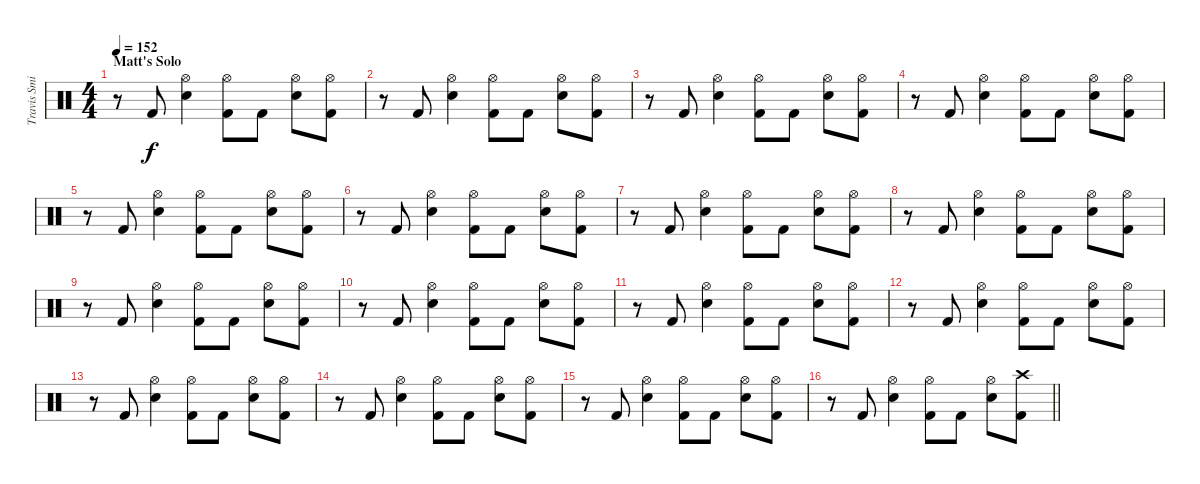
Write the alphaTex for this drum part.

\track ("Travis Smith" "Travis Smi") {instrument percussion}
\staff {score}
\articulation defaults
\ts (4 4)
\section ("" "Matt's Solo")
\tempo 152
\clef neutral
\ks c
r.8{dy f} "Kick (hit) 2".8 ("Snare (hit) 2" "Hi-Hat (open)").4 ("Kick (hit) 2" "Hi-Hat (open)").8 "Kick (hit) 2".8 ("Snare (hit) 2" "Hi-Hat (open)").8 ("Kick (hit) 2" "Hi-Hat (open)").8 |
r.8 "Kick (hit) 2".8 ("Snare (hit) 2" "Hi-Hat (open)").4 ("Kick (hit) 2" "Hi-Hat (open)").8 "Kick (hit) 2".8 ("Snare (hit) 2" "Hi-Hat (open)").8 ("Kick (hit) 2" "Hi-Hat (open)").8 |
r.8 "Kick (hit) 2".8 ("Snare (hit) 2" "Hi-Hat (open)").4 ("Kick (hit) 2" "Hi-Hat (open)").8 "Kick (hit) 2".8 ("Snare (hit) 2" "Hi-Hat (open)").8 ("Kick (hit) 2" "Hi-Hat (open)").8 |
r.8 "Kick (hit) 2".8 ("Snare (hit) 2" "Hi-Hat (open)").4 ("Kick (hit) 2" "Hi-Hat (open)").8 "Kick (hit) 2".8 ("Snare (hit) 2" "Hi-Hat (open)").8 ("Kick (hit) 2" "Hi-Hat (open)").8 |
r.8 "Kick (hit) 2".8 ("Snare (hit) 2" "Hi-Hat (open)").4 ("Kick (hit) 2" "Hi-Hat (open)").8 "Kick (hit) 2".8 ("Snare (hit) 2" "Hi-Hat (open)").8 ("Kick (hit) 2" "Hi-Hat (open)").8 |
r.8 "Kick (hit) 2".8 ("Snare (hit) 2" "Hi-Hat (open)").4 ("Kick (hit) 2" "Hi-Hat (open)").8 "Kick (hit) 2".8 ("Snare (hit) 2" "Hi-Hat (open)").8 ("Kick (hit) 2" "Hi-Hat (open)").8 |
r.8 "Kick (hit) 2".8 ("Snare (hit) 2" "Hi-Hat (open)").4 ("Kick (hit) 2" "Hi-Hat (open)").8 "Kick (hit) 2".8 ("Snare (hit) 2" "Hi-Hat (open)").8 ("Kick (hit) 2" "Hi-Hat (open)").8 |
r.8 "Kick (hit) 2".8 ("Snare (hit) 2" "Hi-Hat (open)").4 ("Kick (hit) 2" "Hi-Hat (open)").8 "Kick (hit) 2".8 ("Snare (hit) 2" "Hi-Hat (open)").8 ("Kick (hit) 2" "Hi-Hat (open)").8 |
r.8 "Kick (hit) 2".8 ("Snare (hit) 2" "Hi-Hat (open)").4 ("Kick (hit) 2" "Hi-Hat (open)").8 "Kick (hit) 2".8 ("Snare (hit) 2" "Hi-Hat (open)").8 ("Kick (hit) 2" "Hi-Hat (open)").8 |
r.8 "Kick (hit) 2".8 ("Snare (hit) 2" "Hi-Hat (open)").4 ("Kick (hit) 2" "Hi-Hat (open)").8 "Kick (hit) 2".8 ("Snare (hit) 2" "Hi-Hat (open)").8 ("Kick (hit) 2" "Hi-Hat (open)").8 |
r.8 "Kick (hit) 2".8 ("Snare (hit) 2" "Hi-Hat (open)").4 ("Kick (hit) 2" "Hi-Hat (open)").8 "Kick (hit) 2".8 ("Snare (hit) 2" "Hi-Hat (open)").8 ("Kick (hit) 2" "Hi-Hat (open)").8 |
r.8 "Kick (hit) 2".8 ("Snare (hit) 2" "Hi-Hat (open)").4 ("Kick (hit) 2" "Hi-Hat (open)").8 "Kick (hit) 2".8 ("Snare (hit) 2" "Hi-Hat (open)").8 ("Kick (hit) 2" "Hi-Hat (open)").8 |
r.8 "Kick (hit) 2".8 ("Snare (hit) 2" "Hi-Hat (open)").4 ("Kick (hit) 2" "Hi-Hat (open)").8 "Kick (hit) 2".8 ("Snare (hit) 2" "Hi-Hat (open)").8 ("Kick (hit) 2" "Hi-Hat (open)").8 |
r.8 "Kick (hit) 2".8 ("Snare (hit) 2" "Hi-Hat (open)").4 ("Kick (hit) 2" "Hi-Hat (open)").8 "Kick (hit) 2".8 ("Snare (hit) 2" "Hi-Hat (open)").8 ("Kick (hit) 2" "Hi-Hat (open)").8 |
r.8 "Kick (hit) 2".8 ("Snare (hit) 2" "Hi-Hat (open)").4 ("Kick (hit) 2" "Hi-Hat (open)").8 "Kick (hit) 2".8 ("Snare (hit) 2" "Hi-Hat (open)").8 ("Kick (hit) 2" "Hi-Hat (open)").8 |
\barLineRight lightlight
r.8 "Kick (hit) 2".8 ("Snare (hit) 2" "Hi-Hat (open)").4 ("Kick (hit) 2" "Hi-Hat (open)").8 "Kick (hit) 2".8 ("Snare (hit) 2" "Hi-Hat (open)").8 ("Kick (hit) 2" "Crash high (hit)").8
